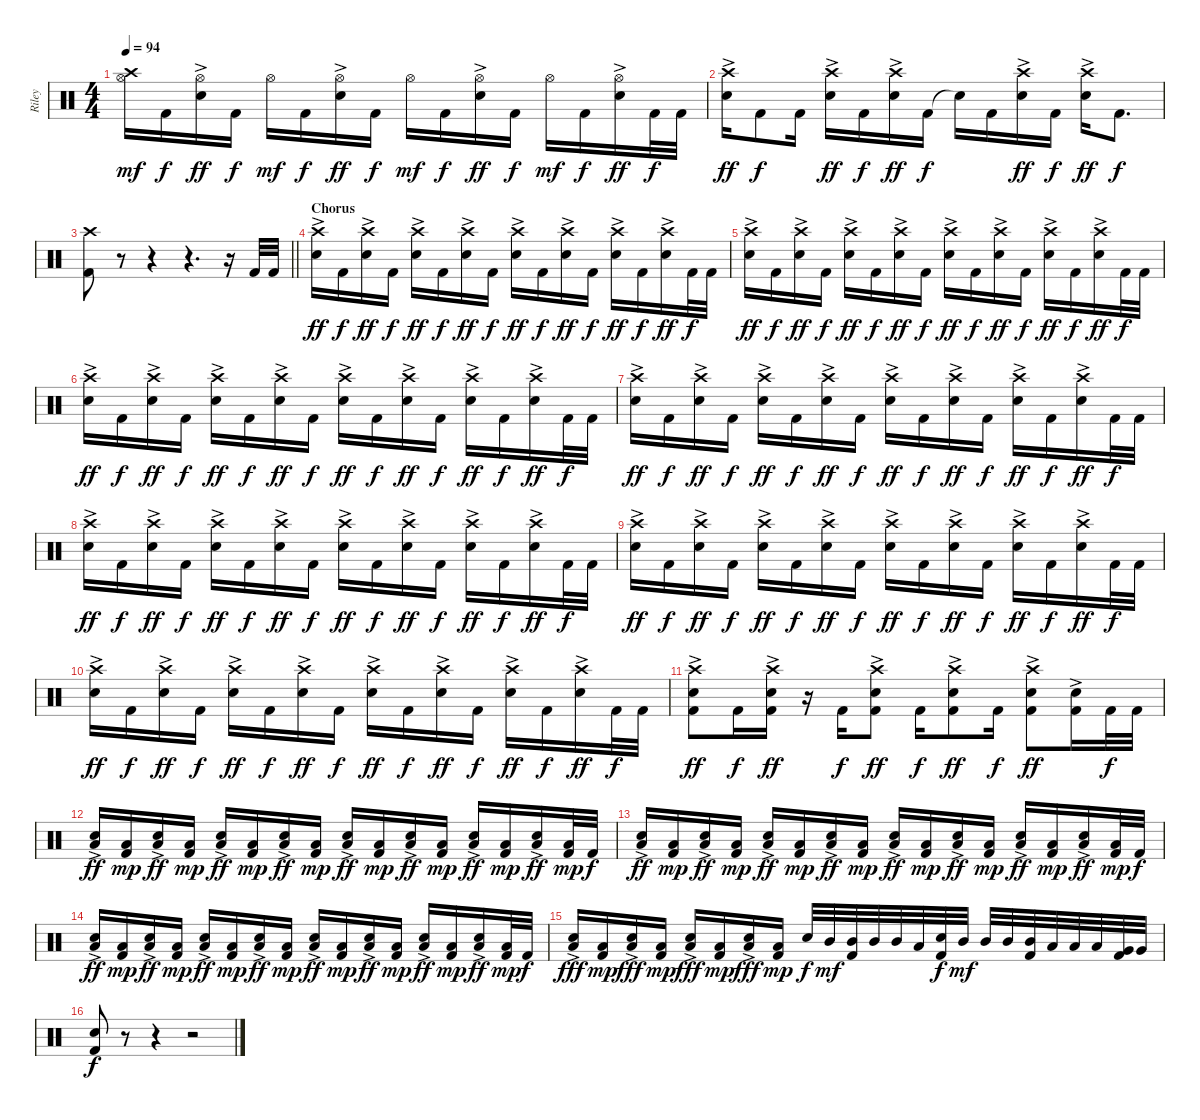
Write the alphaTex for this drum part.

\track ("Riley" "Riley") {instrument percussion}
\staff {score}
\articulation defaults
\ts (4 4)
\tempo 94
\clef neutral
\ks c
("Crash high (hit)" "Hi-Hat (open)").16{dy mf} "Kick (hit) 2".16{dy f} ("Hi-Hat (open)" "Electric Snare (hit)"{ac}).16{dy ff} "Kick (hit) 2".16{dy f} "Hi-Hat (open)".16{dy mf} "Kick (hit) 2".16{dy f} ("Hi-Hat (open)" "Electric Snare (hit)"{ac}).16{dy ff} "Kick (hit) 2".16{dy f} "Hi-Hat (open)".16{dy mf} "Kick (hit) 2".16{dy f} ("Hi-Hat (open)" "Electric Snare (hit)"{ac}).16{dy ff} "Kick (hit) 2".16{dy f} "Hi-Hat (open)".16{dy mf} "Kick (hit) 2".16{dy f} ("Hi-Hat (open)" "Electric Snare (hit)"{ac}).16{dy ff} "Kick (hit) 2".32{dy f} "Kick (hit) 2".32 |
("Crash high (hit)" "Electric Snare (hit)"{ac}).16{dy ff} "Kick (hit) 2".8{dy f} "Kick (hit) 2".16 ("Crash high (hit)" "Electric Snare (hit)"{ac}).16{dy ff} "Kick (hit) 2".16{dy f} ("Crash high (hit)" "Electric Snare (hit)"{ac}).16{dy ff} "Kick (hit) 2".16{dy f} "Snare (hit)"{t}.16 "Kick (hit) 2".16 ("Crash high (hit)" "Electric Snare (hit)"{ac}).16{dy ff} "Kick (hit) 2".16{dy f} ("Crash high (hit)" "Electric Snare (hit)"{ac}).16{dy ff} "Kick (hit) 2".8{d dy f} |
\barLineRight lightlight
("Crash high (hit)" "Kick (hit) 2").8 r.8{volume 0} r.4{volume 13} r.4{d} r.16 "Kick (hit) 2".32 "Kick (hit) 2".32 |
\section ("" "Chorus")
("Crash high (hit)" "Electric Snare (hit)"{ac}).16{dy ff} "Kick (hit) 2".16{dy f} ("Crash high (hit)" "Electric Snare (hit)"{ac}).16{dy ff} "Kick (hit) 2".16{dy f} ("Crash high (hit)" "Electric Snare (hit)"{ac}).16{dy ff} "Kick (hit) 2".16{dy f} ("Crash high (hit)" "Electric Snare (hit)"{ac}).16{dy ff} "Kick (hit) 2".16{dy f} ("Crash high (hit)" "Electric Snare (hit)"{ac}).16{dy ff} "Kick (hit) 2".16{dy f} ("Crash high (hit)" "Electric Snare (hit)"{ac}).16{dy ff} "Kick (hit) 2".16{dy f} ("Crash high (hit)" "Electric Snare (hit)"{ac}).16{dy ff} "Kick (hit) 2".16{dy f} ("Crash high (hit)" "Electric Snare (hit)"{ac}).16{dy ff} "Kick (hit) 2".32{dy f} "Kick (hit) 2".32 |
("Crash high (hit)" "Electric Snare (hit)"{ac}).16{dy ff} "Kick (hit) 2".16{dy f} ("Crash high (hit)" "Electric Snare (hit)"{ac}).16{dy ff} "Kick (hit) 2".16{dy f} ("Crash high (hit)" "Electric Snare (hit)"{ac}).16{dy ff} "Kick (hit) 2".16{dy f} ("Crash high (hit)" "Electric Snare (hit)"{ac}).16{dy ff} "Kick (hit) 2".16{dy f} ("Crash high (hit)" "Electric Snare (hit)"{ac}).16{dy ff} "Kick (hit) 2".16{dy f} ("Crash high (hit)" "Electric Snare (hit)"{ac}).16{dy ff} "Kick (hit) 2".16{dy f} ("Crash high (hit)" "Electric Snare (hit)"{ac}).16{dy ff} "Kick (hit) 2".16{dy f} ("Crash high (hit)" "Electric Snare (hit)"{ac}).16{dy ff} "Kick (hit) 2".32{dy f} "Kick (hit) 2".32 |
("Crash high (hit)" "Electric Snare (hit)"{ac}).16{dy ff} "Kick (hit) 2".16{dy f} ("Crash high (hit)" "Electric Snare (hit)"{ac}).16{dy ff} "Kick (hit) 2".16{dy f} ("Crash high (hit)" "Electric Snare (hit)"{ac}).16{dy ff} "Kick (hit) 2".16{dy f} ("Crash high (hit)" "Electric Snare (hit)"{ac}).16{dy ff} "Kick (hit) 2".16{dy f} ("Crash high (hit)" "Electric Snare (hit)"{ac}).16{dy ff} "Kick (hit) 2".16{dy f} ("Crash high (hit)" "Electric Snare (hit)"{ac}).16{dy ff} "Kick (hit) 2".16{dy f} ("Crash high (hit)" "Electric Snare (hit)"{ac}).16{dy ff} "Kick (hit) 2".16{dy f} ("Crash high (hit)" "Electric Snare (hit)"{ac}).16{dy ff} "Kick (hit) 2".32{dy f} "Kick (hit) 2".32 |
("Crash high (hit)" "Electric Snare (hit)"{ac}).16{dy ff} "Kick (hit) 2".16{dy f} ("Crash high (hit)" "Electric Snare (hit)"{ac}).16{dy ff} "Kick (hit) 2".16{dy f} ("Crash high (hit)" "Electric Snare (hit)"{ac}).16{dy ff} "Kick (hit) 2".16{dy f} ("Crash high (hit)" "Electric Snare (hit)"{ac}).16{dy ff} "Kick (hit) 2".16{dy f} ("Crash high (hit)" "Electric Snare (hit)"{ac}).16{dy ff} "Kick (hit) 2".16{dy f} ("Crash high (hit)" "Electric Snare (hit)"{ac}).16{dy ff} "Kick (hit) 2".16{dy f} ("Crash high (hit)" "Electric Snare (hit)"{ac}).16{dy ff} "Kick (hit) 2".16{dy f} ("Crash high (hit)" "Electric Snare (hit)"{ac}).16{dy ff} "Kick (hit) 2".32{dy f} "Kick (hit) 2".32 |
("Crash high (hit)" "Electric Snare (hit)"{ac}).16{dy ff} "Kick (hit) 2".16{dy f} ("Crash high (hit)" "Electric Snare (hit)"{ac}).16{dy ff} "Kick (hit) 2".16{dy f} ("Crash high (hit)" "Electric Snare (hit)"{ac}).16{dy ff} "Kick (hit) 2".16{dy f} ("Crash high (hit)" "Electric Snare (hit)"{ac}).16{dy ff} "Kick (hit) 2".16{dy f} ("Crash high (hit)" "Electric Snare (hit)"{ac}).16{dy ff} "Kick (hit) 2".16{dy f} ("Crash high (hit)" "Electric Snare (hit)"{ac}).16{dy ff} "Kick (hit) 2".16{dy f} ("Crash high (hit)" "Electric Snare (hit)"{ac}).16{dy ff} "Kick (hit) 2".16{dy f} ("Crash high (hit)" "Electric Snare (hit)"{ac}).16{dy ff} "Kick (hit) 2".32{dy f} "Kick (hit) 2".32 |
("Crash high (hit)" "Electric Snare (hit)"{ac}).16{dy ff} "Kick (hit) 2".16{dy f} ("Crash high (hit)" "Electric Snare (hit)"{ac}).16{dy ff} "Kick (hit) 2".16{dy f} ("Crash high (hit)" "Electric Snare (hit)"{ac}).16{dy ff} "Kick (hit) 2".16{dy f} ("Crash high (hit)" "Electric Snare (hit)"{ac}).16{dy ff} "Kick (hit) 2".16{dy f} ("Crash high (hit)" "Electric Snare (hit)"{ac}).16{dy ff} "Kick (hit) 2".16{dy f} ("Crash high (hit)" "Electric Snare (hit)"{ac}).16{dy ff} "Kick (hit) 2".16{dy f} ("Crash high (hit)" "Electric Snare (hit)"{ac}).16{dy ff} "Kick (hit) 2".16{dy f} ("Crash high (hit)" "Electric Snare (hit)"{ac}).16{dy ff} "Kick (hit) 2".32{dy f} "Kick (hit) 2".32 |
("Crash high (hit)" "Electric Snare (hit)"{ac}).16{dy ff} "Kick (hit) 2".16{dy f} ("Crash high (hit)" "Electric Snare (hit)"{ac}).16{dy ff} "Kick (hit) 2".16{dy f} ("Crash high (hit)" "Electric Snare (hit)"{ac}).16{dy ff} "Kick (hit) 2".16{dy f} ("Crash high (hit)" "Electric Snare (hit)"{ac}).16{dy ff} "Kick (hit) 2".16{dy f} ("Crash high (hit)" "Electric Snare (hit)"{ac}).16{dy ff} "Kick (hit) 2".16{dy f} ("Crash high (hit)" "Electric Snare (hit)"{ac}).16{dy ff} "Kick (hit) 2".16{dy f} ("Crash high (hit)" "Electric Snare (hit)"{ac}).16{dy ff} "Kick (hit) 2".16{dy f} ("Crash high (hit)" "Electric Snare (hit)"{ac}).16{dy ff} "Kick (hit) 2".32{dy f} "Kick (hit) 2".32 |
("Crash high (hit)" "Electric Snare (hit)"{ac} "Kick (hit) 2").8{dy ff} "Kick (hit) 2".16{dy f} ("Crash high (hit)" "Electric Snare (hit)"{ac} "Kick (hit) 2").16{dy ff} r.16 "Kick (hit) 2".16{dy f} ("Crash high (hit)" "Electric Snare (hit)"{ac} "Kick (hit) 2").8{dy ff} "Kick (hit) 2".16{dy f} ("Crash high (hit)" "Electric Snare (hit)"{ac} "Kick (hit) 2").8{dy ff} "Kick (hit) 2".16{dy f} ("Crash high (hit)" "Electric Snare (hit)"{ac} "Kick (hit) 2").8{dy ff} ("Electric Snare (hit)"{ac} "Kick (hit) 2").16 "Kick (hit) 2".32{dy f} "Kick (hit) 2".32 |
("Low Floor Tom (hit)" "Electric Snare (hit)"{ac}).16{dy ff} ("Low Floor Tom (hit)" "Kick (hit) 2").16{dy mp} ("Low Floor Tom (hit)" "Electric Snare (hit)"{ac}).16{dy ff} ("Low Floor Tom (hit)" "Kick (hit) 2").16{dy mp} ("Low Floor Tom (hit)" "Electric Snare (hit)"{ac}).16{dy ff} ("Low Floor Tom (hit)" "Kick (hit) 2").16{dy mp} ("Low Floor Tom (hit)" "Electric Snare (hit)"{ac}).16{dy ff} ("Low Floor Tom (hit)" "Kick (hit) 2").16{dy mp} ("Low Floor Tom (hit)" "Electric Snare (hit)"{ac}).16{dy ff} ("Low Floor Tom (hit)" "Kick (hit) 2").16{dy mp} ("Low Floor Tom (hit)" "Electric Snare (hit)"{ac}).16{dy ff} ("Low Floor Tom (hit)" "Kick (hit) 2").16{dy mp} ("Low Floor Tom (hit)" "Electric Snare (hit)"{ac}).16{dy ff} ("Low Floor Tom (hit)" "Kick (hit) 2").16{dy mp} ("Low Floor Tom (hit)" "Electric Snare (hit)"{ac}).16{dy ff} ("Low Floor Tom (hit)" "Kick (hit) 2").32{dy mp} "Kick (hit) 2".32{dy f} |
("Low Floor Tom (hit)" "Electric Snare (hit)"{ac}).16{dy ff} ("Low Floor Tom (hit)" "Kick (hit) 2").16{dy mp} ("Low Floor Tom (hit)" "Electric Snare (hit)"{ac}).16{dy ff} ("Low Floor Tom (hit)" "Kick (hit) 2").16{dy mp} ("Low Floor Tom (hit)" "Electric Snare (hit)"{ac}).16{dy ff} ("Low Floor Tom (hit)" "Kick (hit) 2").16{dy mp} ("Low Floor Tom (hit)" "Electric Snare (hit)"{ac}).16{dy ff} ("Low Floor Tom (hit)" "Kick (hit) 2").16{dy mp} ("Low Floor Tom (hit)" "Electric Snare (hit)"{ac}).16{dy ff} ("Low Floor Tom (hit)" "Kick (hit) 2").16{dy mp} ("Low Floor Tom (hit)" "Electric Snare (hit)"{ac}).16{dy ff} ("Low Floor Tom (hit)" "Kick (hit) 2").16{dy mp} ("Low Floor Tom (hit)" "Electric Snare (hit)"{ac}).16{dy ff} ("Low Floor Tom (hit)" "Kick (hit) 2").16{dy mp} ("Low Floor Tom (hit)" "Electric Snare (hit)"{ac}).16{dy ff} ("Low Floor Tom (hit)" "Kick (hit) 2").32{dy mp} "Kick (hit) 2".32{dy f} |
("Low Floor Tom (hit)" "Electric Snare (hit)"{ac}).16{dy ff} ("Low Floor Tom (hit)" "Kick (hit) 2").16{dy mp} ("Low Floor Tom (hit)" "Electric Snare (hit)"{ac}).16{dy ff} ("Low Floor Tom (hit)" "Kick (hit) 2").16{dy mp} ("Low Floor Tom (hit)" "Electric Snare (hit)"{ac}).16{dy ff} ("Low Floor Tom (hit)" "Kick (hit) 2").16{dy mp} ("Low Floor Tom (hit)" "Electric Snare (hit)"{ac}).16{dy ff} ("Low Floor Tom (hit)" "Kick (hit) 2").16{dy mp} ("Low Floor Tom (hit)" "Electric Snare (hit)"{ac}).16{dy ff} ("Low Floor Tom (hit)" "Kick (hit) 2").16{dy mp} ("Low Floor Tom (hit)" "Electric Snare (hit)"{ac}).16{dy ff} ("Low Floor Tom (hit)" "Kick (hit) 2").16{dy mp} ("Low Floor Tom (hit)" "Electric Snare (hit)"{ac}).16{dy ff} ("Low Floor Tom (hit)" "Kick (hit) 2").16{dy mp} ("Low Floor Tom (hit)" "Electric Snare (hit)"{ac}).16{dy ff} ("Low Floor Tom (hit)" "Kick (hit) 2").32{dy mp} "Kick (hit) 2".32{dy f} |
("Low Floor Tom (hit)" "Electric Snare (hit)"{ac}).16{dy fff} ("Low Floor Tom (hit)" "Kick (hit) 2").16{dy mp} ("Low Floor Tom (hit)" "Electric Snare (hit)"{ac}).16{dy fff} ("Low Floor Tom (hit)" "Kick (hit) 2").16{dy mp} ("Low Floor Tom (hit)" "Electric Snare (hit)"{ac}).16{dy fff} ("Low Floor Tom (hit)" "Kick (hit) 2").16{dy mp} ("Low Floor Tom (hit)" "Electric Snare (hit)"{ac}).16{dy fff} ("Low Floor Tom (hit)" "Kick (hit) 2").16{dy mp} "Electric Snare (hit)".32{dy f} "Mid Tom (hit)".32{dy mf} ("Mid Tom (hit)" "Kick (hit) 2").32 "Mid Tom (hit)".32 "Mid Tom (hit)".32 "Low Tom (hit)".32 ("Electric Snare (hit)" "Kick (hit) 2").32{dy f} "Mid Tom (hit)".32{dy mf} "Mid Tom (hit)".32 "Mid Tom (hit)".32 ("Mid Tom (hit)" "Kick (hit) 2").32 "Low Tom (hit)".32 "Low Tom (hit)".32 "Low Tom (hit)".32 ("Very Low Tom (hit)" "Kick (hit) 2").32 "Very Low Tom (hit)".32 |
("Electric Snare (hit)" "Kick (hit) 2").8{dy f} r.8 r.4 r.2
